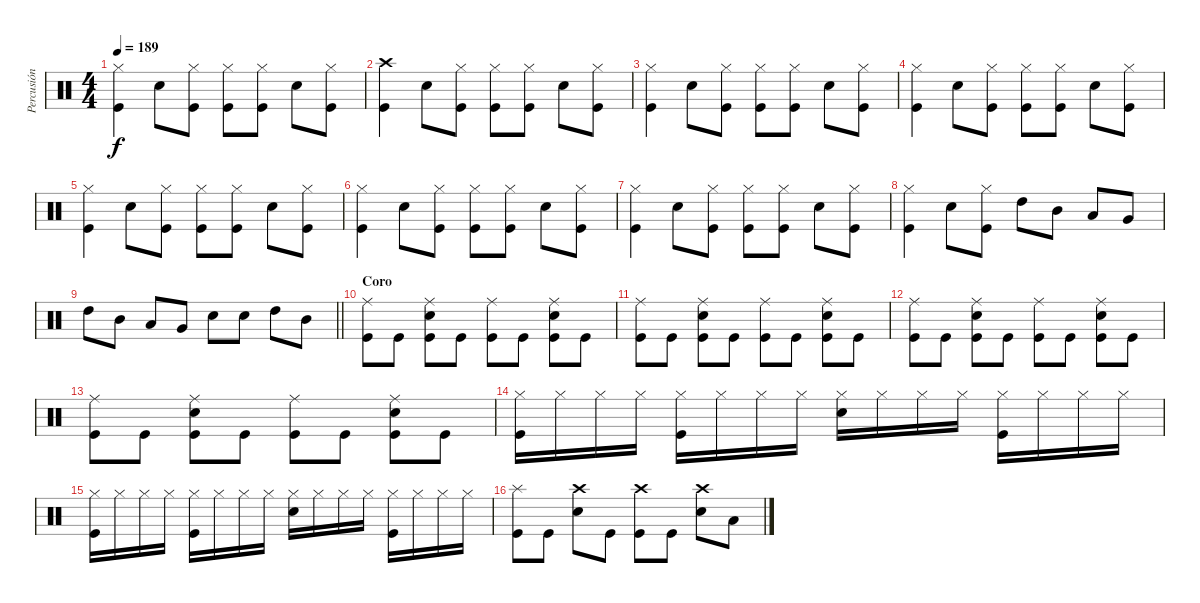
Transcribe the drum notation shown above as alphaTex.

\track ("Percusión" "Percusión") {instrument percussion}
\staff {score}
\articulation defaults
\ts (4 4)
\tempo 189
\clef neutral
\ks c
("Hi-Hat (closed)" "Kick (hit)").4{dy f} "Electric Snare (hit)".8 ("Hi-Hat (closed)" "Kick (hit)").8 ("Hi-Hat (closed)" "Kick (hit)").8 ("Hi-Hat (closed)" "Kick (hit)").8 "Electric Snare (hit)".8 ("Hi-Hat (closed)" "Kick (hit)").8 |
("Crash high (hit)" "Kick (hit)").4 "Electric Snare (hit)".8 ("Hi-Hat (closed)" "Kick (hit)").8 ("Hi-Hat (closed)" "Kick (hit)").8 ("Hi-Hat (closed)" "Kick (hit)").8 "Electric Snare (hit)".8 ("Hi-Hat (closed)" "Kick (hit)").8 |
("Hi-Hat (closed)" "Kick (hit)").4 "Electric Snare (hit)".8 ("Hi-Hat (closed)" "Kick (hit)").8 ("Hi-Hat (closed)" "Kick (hit)").8 ("Hi-Hat (closed)" "Kick (hit)").8 "Electric Snare (hit)".8 ("Hi-Hat (closed)" "Kick (hit)").8 |
("Hi-Hat (closed)" "Kick (hit)").4 "Electric Snare (hit)".8 ("Hi-Hat (closed)" "Kick (hit)").8 ("Hi-Hat (closed)" "Kick (hit)").8 ("Hi-Hat (closed)" "Kick (hit)").8 "Electric Snare (hit)".8 ("Hi-Hat (closed)" "Kick (hit)").8 |
("Hi-Hat (closed)" "Kick (hit)").4 "Electric Snare (hit)".8 ("Hi-Hat (closed)" "Kick (hit)").8 ("Hi-Hat (closed)" "Kick (hit)").8 ("Hi-Hat (closed)" "Kick (hit)").8 "Electric Snare (hit)".8 ("Hi-Hat (closed)" "Kick (hit)").8 |
("Hi-Hat (closed)" "Kick (hit)").4 "Electric Snare (hit)".8 ("Hi-Hat (closed)" "Kick (hit)").8 ("Hi-Hat (closed)" "Kick (hit)").8 ("Hi-Hat (closed)" "Kick (hit)").8 "Electric Snare (hit)".8 ("Hi-Hat (closed)" "Kick (hit)").8 |
("Hi-Hat (closed)" "Kick (hit)").4 "Electric Snare (hit)".8 ("Hi-Hat (closed)" "Kick (hit)").8 ("Hi-Hat (closed)" "Kick (hit)").8 ("Hi-Hat (closed)" "Kick (hit)").8 "Electric Snare (hit)".8 ("Hi-Hat (closed)" "Kick (hit)").8 |
("Hi-Hat (closed)" "Kick (hit)").4 "Electric Snare (hit)".8 ("Hi-Hat (closed)" "Kick (hit)").8 "High Tom (hit)".8 "Mid Tom (hit)".8 "Low Tom (hit)".8 "Very Low Tom (hit)".8 |
\barLineRight lightlight "High Tom (hit)".8 "Mid Tom (hit)".8 "Low Tom (hit)".8 "Very Low Tom (hit)".8 "Electric Snare (hit)".8 "Electric Snare (hit)".8 "High Tom (hit)".8 "Mid Tom (hit)".8
|
\section ("" "Coro")
("Ride (middle)" "Kick (hit)").8 "Kick (hit)".8 ("Ride (middle)" "Electric Snare (hit)" "Kick (hit)").8 "Kick (hit)".8 ("Ride (middle)" "Kick (hit)").8 "Kick (hit)".8 ("Ride (middle)" "Electric Snare (hit)" "Kick (hit)").8 "Kick (hit)".8 |
("Ride (middle)" "Kick (hit)").8 "Kick (hit)".8 ("Ride (middle)" "Electric Snare (hit)" "Kick (hit)").8 "Kick (hit)".8 ("Ride (middle)" "Kick (hit)").8 "Kick (hit)".8 ("Ride (middle)" "Electric Snare (hit)" "Kick (hit)").8 "Kick (hit)".8 |
("Ride (middle)" "Kick (hit)").8 "Kick (hit)".8 ("Ride (middle)" "Electric Snare (hit)" "Kick (hit)").8 "Kick (hit)".8 ("Ride (middle)" "Kick (hit)").8 "Kick (hit)".8 ("Ride (middle)" "Electric Snare (hit)" "Kick (hit)").8 "Kick (hit)".8 |
("Ride (middle)" "Kick (hit)").8 "Kick (hit)".8 ("Ride (middle)" "Electric Snare (hit)" "Kick (hit)").8 "Kick (hit)".8 ("Ride (middle)" "Kick (hit)").8 "Kick (hit)".8 ("Ride (middle)" "Electric Snare (hit)" "Kick (hit)").8 "Kick (hit)".8 |
("Hi-Hat (closed)" "Kick (hit)").16 "Hi-Hat (closed)".16 "Hi-Hat (closed)".16 "Hi-Hat (closed)".16 ("Hi-Hat (closed)" "Kick (hit)").16 "Hi-Hat (closed)".16 "Hi-Hat (closed)".16 "Hi-Hat (closed)".16 ("Hi-Hat (closed)" "Electric Snare (hit)").16 "Hi-Hat (closed)".16 "Hi-Hat (closed)".16 "Hi-Hat (closed)".16 ("Hi-Hat (closed)" "Kick (hit)").16 "Hi-Hat (closed)".16 "Hi-Hat (closed)".16 "Hi-Hat (closed)".16 |
("Hi-Hat (closed)" "Kick (hit)").16 "Hi-Hat (closed)".16 "Hi-Hat (closed)".16 "Hi-Hat (closed)".16 ("Hi-Hat (closed)" "Kick (hit)").16 "Hi-Hat (closed)".16 "Hi-Hat (closed)".16 "Hi-Hat (closed)".16 ("Hi-Hat (closed)" "Electric Snare (hit)").16 "Hi-Hat (closed)".16 "Hi-Hat (closed)".16 "Hi-Hat (closed)".16 ("Hi-Hat (closed)" "Kick (hit)").16 "Hi-Hat (closed)".16 "Hi-Hat (closed)".16 "Hi-Hat (closed)".16 |
("Splash (hit)" "Kick (hit)").8 "Kick (hit)".8 ("Crash high (hit)" "Electric Snare (hit)").8 "Kick (hit)".8 ("Crash high (hit)" "Kick (hit)").8 "Kick (hit)".8 ("Crash high (hit)" "Electric Snare (hit)").8 "Low Floor Tom (hit)".8
